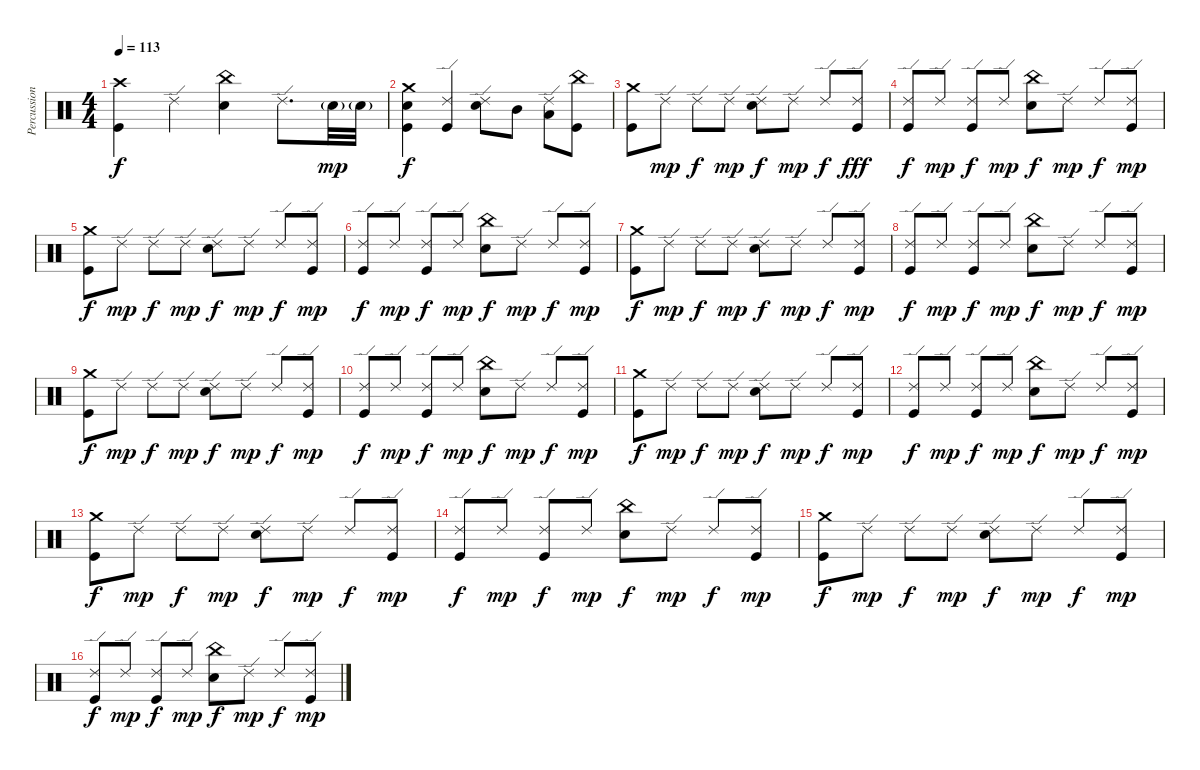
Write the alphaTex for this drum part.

\track ("Percussioni" "Percussion") {instrument percussion}
\staff {score}
\articulation defaults
\ts (4 4)
\tempo 113
\clef neutral
\ks c
("Crash high (hit)" "Kick (hit)").4{dy f} "Ride (edge) 2".4 ("China (hit)" "Electric Snare (hit)").4 "Ride (edge) 2".8{d} "Electric Snare (hit)"{g}.32{dy mp} "Electric Snare (hit)"{g}.32 |
("Crash medium (hit)" "Electric Snare (hit)" "Kick (hit)").4{dy f} ("Ride (edge) 2" "Kick (hit)").4 ("Ride (edge) 2" "Electric Snare (hit)").8 "Mid Tom (hit)".8 ("Ride (edge) 2" "Low Tom (hit)").8 ("China (hit)" "Kick (hit)").8 |
("Crash medium (hit)" "Kick (hit)").8 "Ride (edge) 2".8{dy mp} "Ride (edge) 2".8{dy f} "Ride (edge) 2".8{dy mp} ("Ride (edge) 2" "Electric Snare (hit)").8{dy f} "Ride (edge) 2".8{dy mp} "Ride (edge) 2".8{dy f} ("Ride (edge) 2" "Kick (hit)").8{dy fff} |
("Ride (edge) 2" "Kick (hit)").8{dy f} "Ride (edge) 2".8{dy mp} ("Ride (edge) 2" "Kick (hit)").8{dy f} "Ride (edge) 2".8{dy mp} ("China (hit)" "Electric Snare (hit)").8{dy f} "Ride (edge) 2".8{dy mp} "Ride (edge) 2".8{dy f} ("Ride (edge) 2" "Kick (hit)").8{dy mp} |
("Crash medium (hit)" "Kick (hit)").8{dy f} "Ride (edge) 2".8{dy mp} "Ride (edge) 2".8{dy f} "Ride (edge) 2".8{dy mp} ("Ride (edge) 2" "Electric Snare (hit)").8{dy f} "Ride (edge) 2".8{dy mp} "Ride (edge) 2".8{dy f} ("Ride (edge) 2" "Kick (hit)").8{dy mp} |
("Ride (edge) 2" "Kick (hit)").8{dy f} "Ride (edge) 2".8{dy mp} ("Ride (edge) 2" "Kick (hit)").8{dy f} "Ride (edge) 2".8{dy mp} ("China (hit)" "Electric Snare (hit)").8{dy f} "Ride (edge) 2".8{dy mp} "Ride (edge) 2".8{dy f} ("Ride (edge) 2" "Kick (hit)").8{dy mp} |
("Crash medium (hit)" "Kick (hit)").8{dy f} "Ride (edge) 2".8{dy mp} "Ride (edge) 2".8{dy f} "Ride (edge) 2".8{dy mp} ("Ride (edge) 2" "Electric Snare (hit)").8{dy f} "Ride (edge) 2".8{dy mp} "Ride (edge) 2".8{dy f} ("Ride (edge) 2" "Kick (hit)").8{dy mp} |
("Ride (edge) 2" "Kick (hit)").8{dy f} "Ride (edge) 2".8{dy mp} ("Ride (edge) 2" "Kick (hit)").8{dy f} "Ride (edge) 2".8{dy mp} ("China (hit)" "Electric Snare (hit)").8{dy f} "Ride (edge) 2".8{dy mp} "Ride (edge) 2".8{dy f} ("Ride (edge) 2" "Kick (hit)").8{dy mp} |
("Crash medium (hit)" "Kick (hit)").8{dy f} "Ride (edge) 2".8{dy mp} "Ride (edge) 2".8{dy f} "Ride (edge) 2".8{dy mp} ("Ride (edge) 2" "Electric Snare (hit)").8{dy f} "Ride (edge) 2".8{dy mp} "Ride (edge) 2".8{dy f} ("Ride (edge) 2" "Kick (hit)").8{dy mp} |
("Ride (edge) 2" "Kick (hit)").8{dy f} "Ride (edge) 2".8{dy mp} ("Ride (edge) 2" "Kick (hit)").8{dy f} "Ride (edge) 2".8{dy mp} ("China (hit)" "Electric Snare (hit)").8{dy f} "Ride (edge) 2".8{dy mp} "Ride (edge) 2".8{dy f} ("Ride (edge) 2" "Kick (hit)").8{dy mp} |
("Crash medium (hit)" "Kick (hit)").8{dy f} "Ride (edge) 2".8{dy mp} "Ride (edge) 2".8{dy f} "Ride (edge) 2".8{dy mp} ("Ride (edge) 2" "Electric Snare (hit)").8{dy f} "Ride (edge) 2".8{dy mp} "Ride (edge) 2".8{dy f} ("Ride (edge) 2" "Kick (hit)").8{dy mp} |
("Ride (edge) 2" "Kick (hit)").8{dy f} "Ride (edge) 2".8{dy mp} ("Ride (edge) 2" "Kick (hit)").8{dy f} "Ride (edge) 2".8{dy mp} ("China (hit)" "Electric Snare (hit)").8{dy f} "Ride (edge) 2".8{dy mp} "Ride (edge) 2".8{dy f} ("Ride (edge) 2" "Kick (hit)").8{dy mp} |
("Crash medium (hit)" "Kick (hit)").8{dy f} "Ride (edge) 2".8{dy mp} "Ride (edge) 2".8{dy f} "Ride (edge) 2".8{dy mp} ("Ride (edge) 2" "Electric Snare (hit)").8{dy f} "Ride (edge) 2".8{dy mp} "Ride (edge) 2".8{dy f} ("Ride (edge) 2" "Kick (hit)").8{dy mp} |
("Ride (edge) 2" "Kick (hit)").8{dy f} "Ride (edge) 2".8{dy mp} ("Ride (edge) 2" "Kick (hit)").8{dy f} "Ride (edge) 2".8{dy mp} ("China (hit)" "Electric Snare (hit)").8{dy f} "Ride (edge) 2".8{dy mp} "Ride (edge) 2".8{dy f} ("Ride (edge) 2" "Kick (hit)").8{dy mp} |
("Crash medium (hit)" "Kick (hit)").8{dy f} "Ride (edge) 2".8{dy mp} "Ride (edge) 2".8{dy f} "Ride (edge) 2".8{dy mp} ("Ride (edge) 2" "Electric Snare (hit)").8{dy f} "Ride (edge) 2".8{dy mp} "Ride (edge) 2".8{dy f} ("Ride (edge) 2" "Kick (hit)").8{dy mp} |
("Ride (edge) 2" "Kick (hit)").8{dy f} "Ride (edge) 2".8{dy mp} ("Ride (edge) 2" "Kick (hit)").8{dy f} "Ride (edge) 2".8{dy mp} ("China (hit)" "Electric Snare (hit)").8{dy f} "Ride (edge) 2".8{dy mp} "Ride (edge) 2".8{dy f} ("Ride (edge) 2" "Kick (hit)").8{dy mp}
